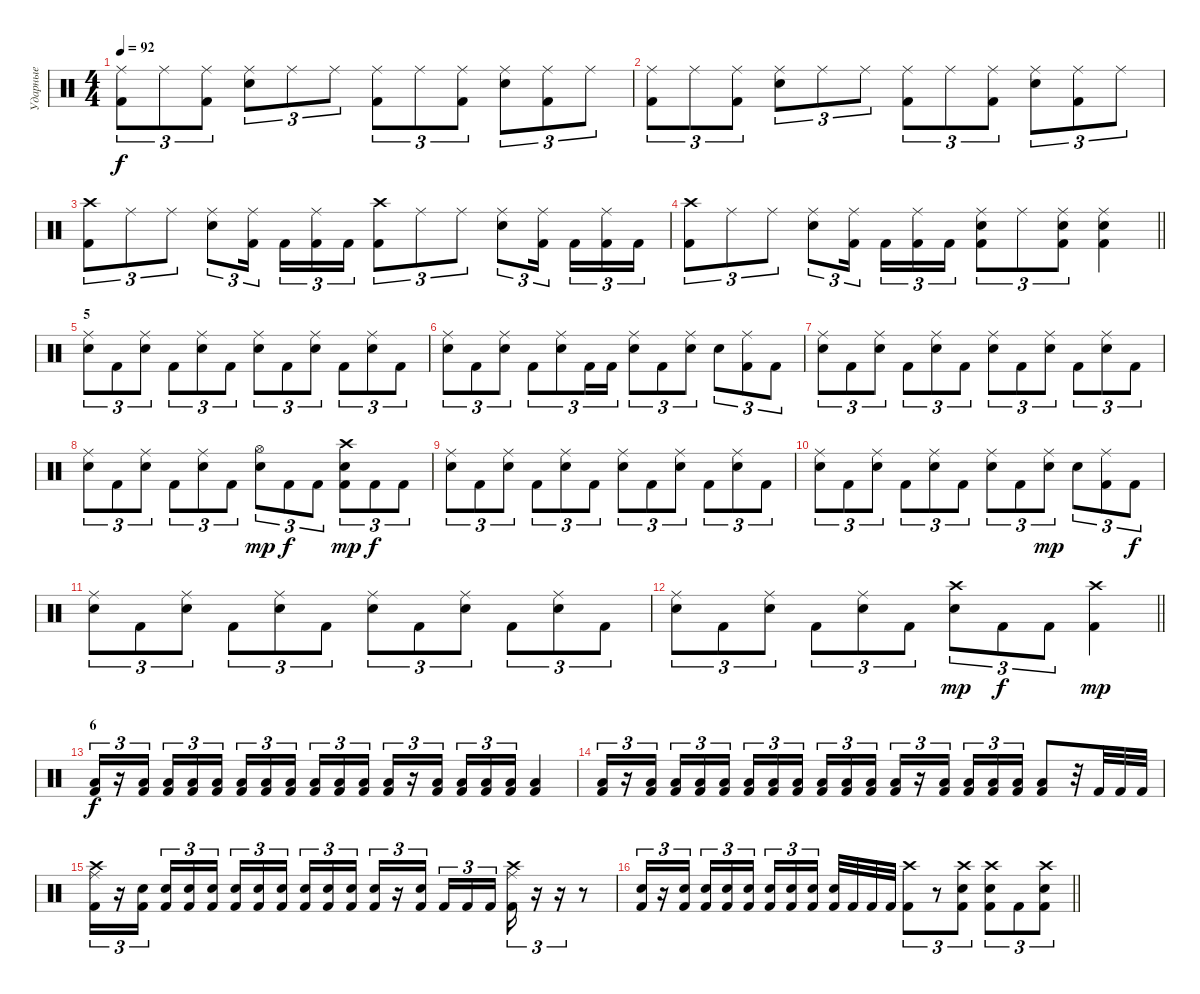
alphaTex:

\track ("Ударные" "Ударные") {instrument percussion}
\staff {score}
\articulation defaults
\ts (4 4)
\tempo 92
\clef neutral
\ks c
("Ride (middle)" "Kick (hit) 2").8{tu (3 2) dy f} "Ride (middle)".8{tu (3 2)} ("Ride (middle)" "Kick (hit) 2").8{tu (3 2)} ("Ride (middle)" "Electric Snare (hit)").8{tu (3 2)} "Ride (middle)".8{tu (3 2)} "Ride (middle)".8{tu (3 2)} ("Ride (middle)" "Kick (hit) 2").8{tu (3 2)} "Ride (middle)".8{tu (3 2)} ("Ride (middle)" "Kick (hit) 2").8{tu (3 2)} ("Ride (middle)" "Electric Snare (hit)").8{tu (3 2)} ("Ride (middle)" "Kick (hit) 2").8{tu (3 2)} "Ride (middle)".8{tu (3 2)} |
("Ride (middle)" "Kick (hit) 2").8{tu (3 2)} "Ride (middle)".8{tu (3 2)} ("Ride (middle)" "Kick (hit) 2").8{tu (3 2)} ("Ride (middle)" "Electric Snare (hit)").8{tu (3 2)} "Ride (middle)".8{tu (3 2)} "Ride (middle)".8{tu (3 2)} ("Ride (middle)" "Kick (hit) 2").8{tu (3 2)} "Ride (middle)".8{tu (3 2)} ("Ride (middle)" "Kick (hit) 2").8{tu (3 2)} ("Ride (middle)" "Electric Snare (hit)").8{tu (3 2)} ("Ride (middle)" "Kick (hit) 2").8{tu (3 2)} "Ride (middle)".8{tu (3 2)} |
("Crash high (hit)" "Kick (hit) 2").8{tu (3 2)} "Ride (middle)".8{tu (3 2)} "Ride (middle)".8{tu (3 2)} ("Ride (middle)" "Electric Snare (hit)").8{tu (3 2)} ("Ride (middle)" "Kick (hit) 2").16{tu (3 2) beam splitsecondary} "Kick (hit) 2".16{tu (3 2)} ("Ride (middle)" "Kick (hit) 2").16{tu (3 2)} "Kick (hit) 2".16{tu (3 2)} ("Crash high (hit)" "Kick (hit) 2").8{tu (3 2)} "Ride (middle)".8{tu (3 2)} "Ride (middle)".8{tu (3 2)} ("Ride (middle)" "Electric Snare (hit)").8{tu (3 2)} ("Ride (middle)" "Kick (hit) 2").16{tu (3 2) beam splitsecondary} "Kick (hit) 2".16{tu (3 2)} ("Ride (middle)" "Kick (hit) 2").16{tu (3 2)} "Kick (hit) 2".16{tu (3 2)} |
\barLineRight lightlight
("Crash high (hit)" "Kick (hit) 2").8{tu (3 2)} "Ride (middle)".8{tu (3 2)} "Ride (middle)".8{tu (3 2)} ("Ride (middle)" "Electric Snare (hit)").8{tu (3 2)} ("Ride (middle)" "Kick (hit) 2").16{tu (3 2) beam splitsecondary} "Kick (hit) 2".16{tu (3 2)} ("Ride (middle)" "Kick (hit) 2").16{tu (3 2)} "Kick (hit) 2".16{tu (3 2)} ("Ride (middle)" "Electric Snare (hit)" "Kick (hit) 2").8{tu (3 2)} "Ride (middle)".8{tu (3 2)} ("Ride (middle)" "Electric Snare (hit)" "Kick (hit) 2").8{tu (3 2)} ("Ride (middle)" "Electric Snare (hit)" "Kick (hit) 2").4 |
\section ("" "5")
("Ride (middle)" "Electric Snare (hit)").8{tu (3 2)} "Kick (hit) 2".8{tu (3 2)} ("Ride (middle)" "Electric Snare (hit)").8{tu (3 2)} "Kick (hit) 2".8{tu (3 2)} ("Ride (middle)" "Electric Snare (hit)").8{tu (3 2)} "Kick (hit) 2".8{tu (3 2)} ("Ride (middle)" "Electric Snare (hit)").8{tu (3 2)} "Kick (hit) 2".8{tu (3 2)} ("Ride (middle)" "Electric Snare (hit)").8{tu (3 2)} "Kick (hit) 2".8{tu (3 2)} ("Ride (middle)" "Electric Snare (hit)").8{tu (3 2)} "Kick (hit) 2".8{tu (3 2)} |
("Ride (middle)" "Electric Snare (hit)").8{tu (3 2)} "Kick (hit) 2".8{tu (3 2)} ("Ride (middle)" "Electric Snare (hit)").8{tu (3 2)} "Kick (hit) 2".8{tu (3 2)} ("Ride (middle)" "Electric Snare (hit)").8{tu (3 2)} "Kick (hit) 2".16{tu (3 2)} "Kick (hit) 2".16{tu (3 2)} ("Ride (middle)" "Electric Snare (hit)").8{tu (3 2)} "Kick (hit) 2".8{tu (3 2)} ("Ride (middle)" "Electric Snare (hit)").8{tu (3 2)} "Electric Snare (hit)".8{tu (3 2)} ("Ride (middle)" "Kick (hit) 2").8{tu (3 2)} "Kick (hit) 2".8{tu (3 2)} |
("Ride (middle)" "Electric Snare (hit)").8{tu (3 2)} "Kick (hit) 2".8{tu (3 2)} ("Ride (middle)" "Electric Snare (hit)").8{tu (3 2)} "Kick (hit) 2".8{tu (3 2)} ("Ride (middle)" "Electric Snare (hit)").8{tu (3 2)} "Kick (hit) 2".8{tu (3 2)} ("Ride (middle)" "Electric Snare (hit)").8{tu (3 2)} "Kick (hit) 2".8{tu (3 2)} ("Ride (middle)" "Electric Snare (hit)").8{tu (3 2)} "Kick (hit) 2".8{tu (3 2)} ("Ride (middle)" "Electric Snare (hit)").8{tu (3 2)} "Kick (hit) 2".8{tu (3 2)} |
("Ride (middle)" "Electric Snare (hit)").8{tu (3 2)} "Kick (hit) 2".8{tu (3 2)} ("Ride (middle)" "Electric Snare (hit)").8{tu (3 2)} "Kick (hit) 2".8{tu (3 2)} ("Ride (middle)" "Electric Snare (hit)").8{tu (3 2)} "Kick (hit) 2".8{tu (3 2)} ("Hi-Hat (open)" "Electric Snare (hit)").8{tu (3 2) dy mp} "Kick (hit) 2".8{tu (3 2) dy f} "Kick (hit) 2".8{tu (3 2)} ("Crash high (hit)" "Electric Snare (hit)" "Kick (hit) 2").8{tu (3 2) dy mp} "Kick (hit) 2".8{tu (3 2) dy f} "Kick (hit) 2".8{tu (3 2)} |
("Ride (middle)" "Electric Snare (hit)").8{tu (3 2)} "Kick (hit) 2".8{tu (3 2)} ("Ride (middle)" "Electric Snare (hit)").8{tu (3 2)} "Kick (hit) 2".8{tu (3 2)} ("Ride (middle)" "Electric Snare (hit)").8{tu (3 2)} "Kick (hit) 2".8{tu (3 2)} ("Ride (middle)" "Electric Snare (hit)").8{tu (3 2)} "Kick (hit) 2".8{tu (3 2)} ("Ride (middle)" "Electric Snare (hit)").8{tu (3 2)} "Kick (hit) 2".8{tu (3 2)} ("Ride (middle)" "Electric Snare (hit)").8{tu (3 2)} "Kick (hit) 2".8{tu (3 2)} |
("Ride (middle)" "Electric Snare (hit)").8{tu (3 2)} "Kick (hit) 2".8{tu (3 2)} ("Ride (middle)" "Electric Snare (hit)").8{tu (3 2)} "Kick (hit) 2".8{tu (3 2)} ("Ride (middle)" "Electric Snare (hit)").8{tu (3 2)} "Kick (hit) 2".8{tu (3 2)} ("Ride (middle)" "Electric Snare (hit)").8{tu (3 2)} "Kick (hit) 2".8{tu (3 2)} ("Ride (middle)" "Electric Snare (hit)").8{tu (3 2) dy mp} "Electric Snare (hit)".8{tu (3 2)} ("Ride (middle)" "Kick (hit) 2").8{tu (3 2)} "Kick (hit) 2".8{tu (3 2) dy f} |
("Ride (middle)" "Electric Snare (hit)").8{tu (3 2)} "Kick (hit) 2".8{tu (3 2)} ("Ride (middle)" "Electric Snare (hit)").8{tu (3 2)} "Kick (hit) 2".8{tu (3 2)} ("Ride (middle)" "Electric Snare (hit)").8{tu (3 2)} "Kick (hit) 2".8{tu (3 2)} ("Ride (middle)" "Electric Snare (hit)").8{tu (3 2)} "Kick (hit) 2".8{tu (3 2)} ("Ride (middle)" "Electric Snare (hit)").8{tu (3 2)} "Kick (hit) 2".8{tu (3 2)} ("Ride (middle)" "Electric Snare (hit)").8{tu (3 2)} "Kick (hit) 2".8{tu (3 2)} |
\barLineRight lightlight
("Ride (middle)" "Electric Snare (hit)").8{tu (3 2)} "Kick (hit) 2".8{tu (3 2)} ("Ride (middle)" "Electric Snare (hit)").8{tu (3 2)} "Kick (hit) 2".8{tu (3 2)} ("Ride (middle)" "Electric Snare (hit)").8{tu (3 2)} "Kick (hit) 2".8{tu (3 2)} ("Crash high (hit)" "Electric Snare (hit)").8{tu (3 2) dy mp} "Kick (hit) 2".8{tu (3 2) dy f} "Kick (hit) 2".8{tu (3 2)} ("Crash high (hit)" "Kick (hit) 2").4{dy mp} |
\section ("" "6")
("Low Floor Tom (hit)" "Kick (hit) 2").16{tu (3 2) dy f} r.16{tu (3 2)} ("Low Floor Tom (hit)" "Kick (hit) 2").16{tu (3 2) beam splitsecondary} ("Low Floor Tom (hit)" "Kick (hit) 2").16{tu (3 2)} ("Low Floor Tom (hit)" "Kick (hit) 2").16{tu (3 2)} ("Low Floor Tom (hit)" "Kick (hit) 2").16{tu (3 2)} ("Low Floor Tom (hit)" "Kick (hit) 2").16{tu (3 2)} ("Low Floor Tom (hit)" "Kick (hit) 2").16{tu (3 2)} ("Low Floor Tom (hit)" "Kick (hit) 2").16{tu (3 2) beam splitsecondary} ("Low Floor Tom (hit)" "Kick (hit) 2").16{tu (3 2)} ("Low Floor Tom (hit)" "Kick (hit) 2").16{tu (3 2)} ("Low Floor Tom (hit)" "Kick (hit) 2").16{tu (3 2)} ("Low Floor Tom (hit)" "Kick (hit) 2").16{tu (3 2)} r.16{tu (3 2)} ("Low Floor Tom (hit)" "Kick (hit) 2").16{tu (3 2) beam splitsecondary} ("Low Floor Tom (hit)" "Kick (hit) 2").16{tu (3 2)} ("Low Floor Tom (hit)" "Kick (hit) 2").16{tu (3 2)} ("Low Floor Tom (hit)" "Kick (hit) 2").16{tu (3 2)} ("Low Floor Tom (hit)" "Kick (hit) 2").4 |
("Low Floor Tom (hit)" "Kick (hit) 2").16{tu (3 2)} r.16{tu (3 2)} ("Low Floor Tom (hit)" "Kick (hit) 2").16{tu (3 2) beam splitsecondary} ("Low Floor Tom (hit)" "Kick (hit) 2").16{tu (3 2)} ("Low Floor Tom (hit)" "Kick (hit) 2").16{tu (3 2)} ("Low Floor Tom (hit)" "Kick (hit) 2").16{tu (3 2)} ("Low Floor Tom (hit)" "Kick (hit) 2").16{tu (3 2)} ("Low Floor Tom (hit)" "Kick (hit) 2").16{tu (3 2)} ("Low Floor Tom (hit)" "Kick (hit) 2").16{tu (3 2) beam splitsecondary} ("Low Floor Tom (hit)" "Kick (hit) 2").16{tu (3 2)} ("Low Floor Tom (hit)" "Kick (hit) 2").16{tu (3 2)} ("Low Floor Tom (hit)" "Kick (hit) 2").16{tu (3 2)} ("Low Floor Tom (hit)" "Kick (hit) 2").16{tu (3 2)} r.16{tu (3 2)} ("Low Floor Tom (hit)" "Kick (hit) 2").16{tu (3 2) beam splitsecondary} ("Low Floor Tom (hit)" "Kick (hit) 2").16{tu (3 2)} ("Low Floor Tom (hit)" "Kick (hit) 2").16{tu (3 2)} ("Low Floor Tom (hit)" "Kick (hit) 2").16{tu (3 2)} ("Low Floor Tom (hit)" "Kick (hit) 2").8 r.32 "Kick (hit) 2".32 "Kick (hit) 2".32 "Kick (hit) 2".32 |
("Crash high (hit)" "Ride (middle)" "Kick (hit) 2").16{tu (3 2)} r.16{tu (3 2)} ("Electric Snare (hit)" "Kick (hit) 2").16{tu (3 2) beam splitsecondary} ("Electric Snare (hit)" "Kick (hit) 2").16{tu (3 2)} ("Electric Snare (hit)" "Kick (hit) 2").16{tu (3 2)} ("Electric Snare (hit)" "Kick (hit) 2").16{tu (3 2)} ("Electric Snare (hit)" "Kick (hit) 2").16{tu (3 2)} ("Electric Snare (hit)" "Kick (hit) 2").16{tu (3 2)} ("Electric Snare (hit)" "Kick (hit) 2").16{tu (3 2) beam splitsecondary} ("Electric Snare (hit)" "Kick (hit) 2").16{tu (3 2)} ("Electric Snare (hit)" "Kick (hit) 2").16{tu (3 2)} ("Electric Snare (hit)" "Kick (hit) 2").16{tu (3 2)} ("Electric Snare (hit)" "Kick (hit) 2").16{tu (3 2)} r.16{tu (3 2)} ("Electric Snare (hit)" "Kick (hit) 2").16{tu (3 2) beam splitsecondary} "Kick (hit) 2".16{tu (3 2)} "Kick (hit) 2".16{tu (3 2)} "Kick (hit) 2".16{tu (3 2)} ("Crash high (hit)" "Ride (middle)" "Kick (hit) 2").16{tu (3 2)} r.16{tu (3 2)} r.16{tu (3 2)} r.8 |
\barLineRight lightlight
("Electric Snare (hit)" "Kick (hit) 2").16{tu (3 2)} r.16{tu (3 2)} ("Electric Snare (hit)" "Kick (hit) 2").16{tu (3 2) beam splitsecondary} ("Electric Snare (hit)" "Kick (hit) 2").16{tu (3 2)} ("Electric Snare (hit)" "Kick (hit) 2").16{tu (3 2)} ("Electric Snare (hit)" "Kick (hit) 2").16{tu (3 2)} ("Electric Snare (hit)" "Kick (hit) 2").16{tu (3 2)} ("Electric Snare (hit)" "Kick (hit) 2").16{tu (3 2)} ("Electric Snare (hit)" "Kick (hit) 2").16{tu (3 2) beam splitsecondary} ("Electric Snare (hit)" "Kick (hit) 2").32 "Kick (hit) 2".32 "Kick (hit) 2".32 "Kick (hit) 2".32 ("Crash high (hit)" "Kick (hit) 2").8{tu (3 2)} r.8{tu (3 2)} ("Crash high (hit)" "Electric Snare (hit)" "Kick (hit) 2").8{tu (3 2)} ("Crash high (hit)" "Electric Snare (hit)" "Kick (hit) 2").8{tu (3 2)} "Kick (hit) 2".8{tu (3 2)} ("Crash high (hit)" "Electric Snare (hit)" "Kick (hit) 2").8{tu (3 2)}
